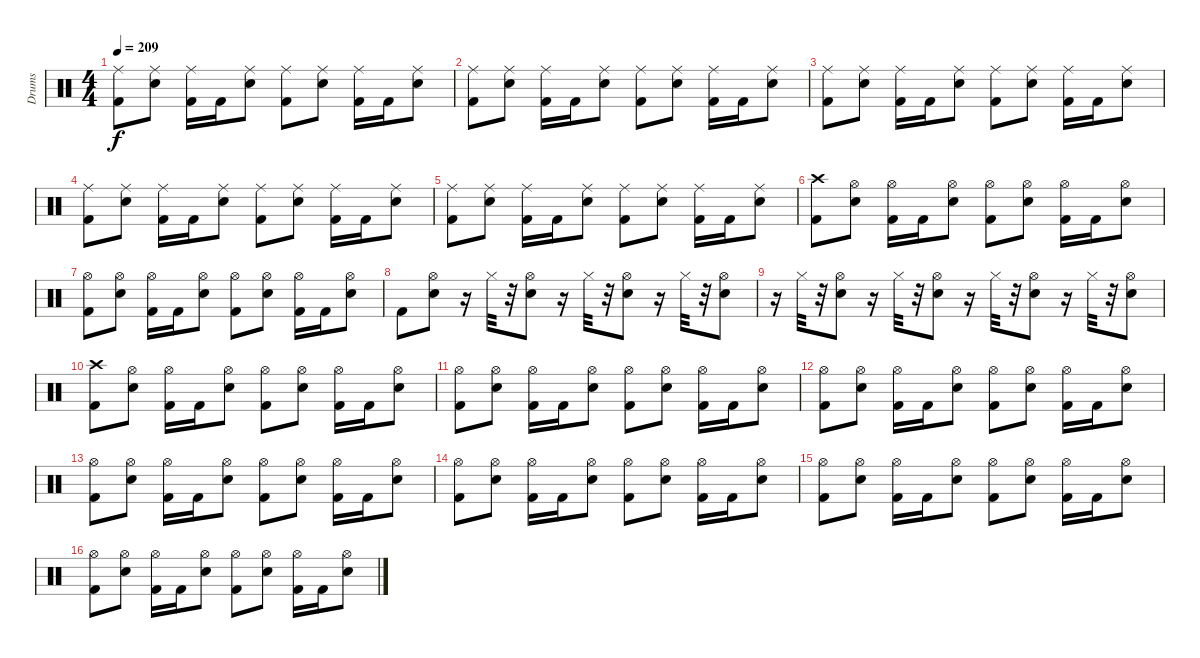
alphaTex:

\track ("Drums" "Drums") {instrument percussion}
\staff {score}
\articulation defaults
\ts (4 4)
\tempo 209
\clef neutral
\ks c
("Kick (hit) 2" "Ride (middle)").8{dy f} ("Electric Snare (hit)" "Ride (middle)").8 ("Kick (hit) 2" "Ride (middle)").16 "Kick (hit) 2".16 ("Electric Snare (hit)" "Ride (middle)").8 ("Kick (hit) 2" "Ride (middle)").8 ("Electric Snare (hit)" "Ride (middle)").8 ("Kick (hit) 2" "Ride (middle)").16 "Kick (hit) 2".16 ("Electric Snare (hit)" "Ride (middle)").8 |
("Kick (hit) 2" "Ride (middle)").8 ("Electric Snare (hit)" "Ride (middle)").8 ("Kick (hit) 2" "Ride (middle)").16 "Kick (hit) 2".16 ("Electric Snare (hit)" "Ride (middle)").8 ("Kick (hit) 2" "Ride (middle)").8 ("Electric Snare (hit)" "Ride (middle)").8 ("Kick (hit) 2" "Ride (middle)").16 "Kick (hit) 2".16 ("Electric Snare (hit)" "Ride (middle)").8 |
("Kick (hit) 2" "Ride (middle)").8 ("Electric Snare (hit)" "Ride (middle)").8 ("Kick (hit) 2" "Ride (middle)").16 "Kick (hit) 2".16 ("Electric Snare (hit)" "Ride (middle)").8 ("Kick (hit) 2" "Ride (middle)").8 ("Electric Snare (hit)" "Ride (middle)").8 ("Kick (hit) 2" "Ride (middle)").16 "Kick (hit) 2".16 ("Electric Snare (hit)" "Ride (middle)").8 |
("Kick (hit) 2" "Ride (middle)").8 ("Electric Snare (hit)" "Ride (middle)").8 ("Kick (hit) 2" "Ride (middle)").16 "Kick (hit) 2".16 ("Electric Snare (hit)" "Ride (middle)").8 ("Kick (hit) 2" "Ride (middle)").8 ("Electric Snare (hit)" "Ride (middle)").8 ("Kick (hit) 2" "Ride (middle)").16 "Kick (hit) 2".16 ("Electric Snare (hit)" "Ride (middle)").8 |
("Kick (hit) 2" "Ride (middle)").8 ("Electric Snare (hit)" "Ride (middle)").8 ("Kick (hit) 2" "Ride (middle)").16 "Kick (hit) 2".16 ("Electric Snare (hit)" "Ride (middle)").8 ("Kick (hit) 2" "Ride (middle)").8 ("Electric Snare (hit)" "Ride (middle)").8 ("Kick (hit) 2" "Ride (middle)").16 "Kick (hit) 2".16 ("Electric Snare (hit)" "Ride (middle)").8 |
("Kick (hit) 2" "Crash high (hit)").8 ("Electric Snare (hit)" "Hi-Hat (open)").8 ("Kick (hit) 2" "Hi-Hat (open)").16 "Kick (hit) 2".16 ("Electric Snare (hit)" "Hi-Hat (open)").8 ("Kick (hit) 2" "Hi-Hat (open)").8 ("Electric Snare (hit)" "Hi-Hat (open)").8 ("Kick (hit) 2" "Hi-Hat (open)").16 "Kick (hit) 2".16 ("Electric Snare (hit)" "Hi-Hat (open)").8 |
("Kick (hit) 2" "Hi-Hat (open)").8 ("Electric Snare (hit)" "Hi-Hat (open)").8 ("Kick (hit) 2" "Hi-Hat (open)").16 "Kick (hit) 2".16 ("Electric Snare (hit)" "Hi-Hat (open)").8 ("Kick (hit) 2" "Hi-Hat (open)").8 ("Electric Snare (hit)" "Hi-Hat (open)").8 ("Kick (hit) 2" "Hi-Hat (open)").16 "Kick (hit) 2".16 ("Electric Snare (hit)" "Hi-Hat (open)").8 |
"Kick (hit) 2".8 ("Electric Snare (hit)" "Hi-Hat (open)").8 r.16 "Hi-Hat (closed)".32 r.32 ("Electric Snare (hit)" "Hi-Hat (open)").8 r.16 "Hi-Hat (closed)".32 r.32 ("Electric Snare (hit)" "Hi-Hat (open)").8 r.16 "Hi-Hat (closed)".32 r.32 ("Electric Snare (hit)" "Hi-Hat (open)").8 |
r.16 "Hi-Hat (closed)".32 r.32 ("Electric Snare (hit)" "Hi-Hat (open)").8 r.16 "Hi-Hat (closed)".32 r.32 ("Electric Snare (hit)" "Hi-Hat (open)").8 r.16 "Hi-Hat (closed)".32 r.32 ("Electric Snare (hit)" "Hi-Hat (open)").8 r.16 "Hi-Hat (closed)".32 r.32 ("Electric Snare (hit)" "Hi-Hat (open)").8 |
("Kick (hit) 2" "Crash high (hit)").8 ("Electric Snare (hit)" "Hi-Hat (open)").8 ("Kick (hit) 2" "Hi-Hat (open)").16 "Kick (hit) 2".16 ("Electric Snare (hit)" "Hi-Hat (open)").8 ("Kick (hit) 2" "Hi-Hat (open)").8 ("Electric Snare (hit)" "Hi-Hat (open)").8 ("Kick (hit) 2" "Hi-Hat (open)").16 "Kick (hit) 2".16 ("Electric Snare (hit)" "Hi-Hat (open)").8 |
("Kick (hit) 2" "Hi-Hat (open)").8 ("Electric Snare (hit)" "Hi-Hat (open)").8 ("Kick (hit) 2" "Hi-Hat (open)").16 "Kick (hit) 2".16 ("Electric Snare (hit)" "Hi-Hat (open)").8 ("Kick (hit) 2" "Hi-Hat (open)").8 ("Electric Snare (hit)" "Hi-Hat (open)").8 ("Kick (hit) 2" "Hi-Hat (open)").16 "Kick (hit) 2".16 ("Electric Snare (hit)" "Hi-Hat (open)").8 |
("Kick (hit) 2" "Hi-Hat (open)").8 ("Electric Snare (hit)" "Hi-Hat (open)").8 ("Kick (hit) 2" "Hi-Hat (open)").16 "Kick (hit) 2".16 ("Electric Snare (hit)" "Hi-Hat (open)").8 ("Kick (hit) 2" "Hi-Hat (open)").8 ("Electric Snare (hit)" "Hi-Hat (open)").8 ("Kick (hit) 2" "Hi-Hat (open)").16 "Kick (hit) 2".16 ("Electric Snare (hit)" "Hi-Hat (open)").8 |
("Kick (hit) 2" "Hi-Hat (open)").8 ("Electric Snare (hit)" "Hi-Hat (open)").8 ("Kick (hit) 2" "Hi-Hat (open)").16 "Kick (hit) 2".16 ("Electric Snare (hit)" "Hi-Hat (open)").8 ("Kick (hit) 2" "Hi-Hat (open)").8 ("Electric Snare (hit)" "Hi-Hat (open)").8 ("Kick (hit) 2" "Hi-Hat (open)").16 "Kick (hit) 2".16 ("Electric Snare (hit)" "Hi-Hat (open)").8 |
("Kick (hit) 2" "Hi-Hat (open)").8 ("Electric Snare (hit)" "Hi-Hat (open)").8 ("Kick (hit) 2" "Hi-Hat (open)").16 "Kick (hit) 2".16 ("Electric Snare (hit)" "Hi-Hat (open)").8 ("Kick (hit) 2" "Hi-Hat (open)").8 ("Electric Snare (hit)" "Hi-Hat (open)").8 ("Kick (hit) 2" "Hi-Hat (open)").16 "Kick (hit) 2".16 ("Electric Snare (hit)" "Hi-Hat (open)").8 |
("Kick (hit) 2" "Hi-Hat (open)").8 ("Electric Snare (hit)" "Hi-Hat (open)").8 ("Kick (hit) 2" "Hi-Hat (open)").16 "Kick (hit) 2".16 ("Electric Snare (hit)" "Hi-Hat (open)").8 ("Kick (hit) 2" "Hi-Hat (open)").8 ("Electric Snare (hit)" "Hi-Hat (open)").8 ("Kick (hit) 2" "Hi-Hat (open)").16 "Kick (hit) 2".16 ("Electric Snare (hit)" "Hi-Hat (open)").8 |
("Kick (hit) 2" "Hi-Hat (open)").8 ("Electric Snare (hit)" "Hi-Hat (open)").8 ("Kick (hit) 2" "Hi-Hat (open)").16 "Kick (hit) 2".16 ("Electric Snare (hit)" "Hi-Hat (open)").8 ("Kick (hit) 2" "Hi-Hat (open)").8 ("Electric Snare (hit)" "Hi-Hat (open)").8 ("Kick (hit) 2" "Hi-Hat (open)").16 "Kick (hit) 2".16 ("Electric Snare (hit)" "Hi-Hat (open)").8
